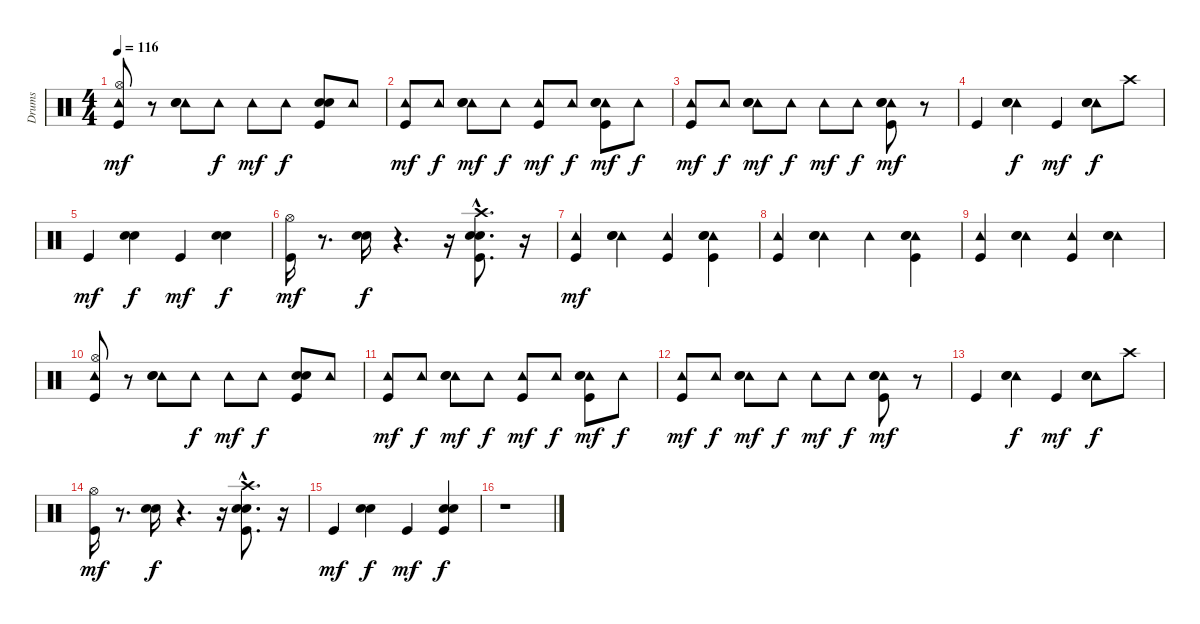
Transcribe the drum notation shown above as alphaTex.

\track ("Drums" "Drums") {instrument percussion}
\staff {score}
\articulation defaults
\ts (4 4)
\tempo 116
\clef neutral
\ks c
("Tambourine (hit)" "Hi-Hat (open)" "Kick (hit)").8{dy mf} r.8 ("Tambourine (hit)" "Electric Snare (hit)" "Snare (hit) 2").8 "Tambourine (hit)".8{dy f} "Tambourine (hit)".8{dy mf} "Tambourine (hit)".8{dy f} ("Electric Snare (hit)" "Snare (hit) 2" "Kick (hit)").8 "Tambourine (hit)".8 |
("Tambourine (hit)" "Kick (hit)").8{dy mf} "Tambourine (hit)".8{dy f} ("Tambourine (hit)" "Electric Snare (hit)" "Snare (hit) 2").8{dy mf} "Tambourine (hit)".8{dy f} ("Tambourine (hit)" "Kick (hit)").8{dy mf} "Tambourine (hit)".8{dy f} ("Tambourine (hit)" "Electric Snare (hit)" "Snare (hit) 2" "Kick (hit)").8{dy mf} "Tambourine (hit)".8{dy f} |
("Tambourine (hit)" "Kick (hit)").8{dy mf} "Tambourine (hit)".8{dy f} ("Tambourine (hit)" "Electric Snare (hit)" "Snare (hit) 2").8{dy mf} "Tambourine (hit)".8{dy f} "Tambourine (hit)".8{dy mf} "Tambourine (hit)".8{dy f} ("Tambourine (hit)" "Electric Snare (hit)" "Snare (hit) 2" "Kick (hit)").8{dy mf} r.8 |
"Kick (hit)".4 ("Tambourine (hit)" "Electric Snare (hit)" "Snare (hit) 2").4{dy f} "Kick (hit)".4{dy mf} ("Tambourine (hit)" "Electric Snare (hit)" "Snare (hit) 2").8{dy f} "Crash high (hit)".8 |
"Kick (hit)".4{dy mf} ("Electric Snare (hit)" "Snare (hit) 2").4{dy f} "Kick (hit)".4{dy mf} ("Electric Snare (hit)" "Snare (hit) 2").4{dy f} |
("Hi-Hat (open)" "Kick (hit)").16{dy mf} r.8{d} ("Electric Snare (hit)" "Snare (hit) 2").16{dy f} r.4{d} r.16 ("Crash high (hit)"{hac} "Electric Snare (hit)" "Snare (hit) 2" "Kick (hit)").8{d} r.16 |
("Tambourine (hit)" "Kick (hit)").4{dy mf} ("Tambourine (hit)" "Electric Snare (hit)" "Snare (hit) 2").4 ("Tambourine (hit)" "Kick (hit)").4 ("Tambourine (hit)" "Electric Snare (hit)" "Snare (hit) 2" "Kick (hit)").4 |
("Tambourine (hit)" "Kick (hit)").4 ("Tambourine (hit)" "Electric Snare (hit)" "Snare (hit) 2").4 "Tambourine (hit)".4 ("Tambourine (hit)" "Electric Snare (hit)" "Snare (hit) 2" "Kick (hit)").4 |
("Tambourine (hit)" "Kick (hit)").4 ("Tambourine (hit)" "Electric Snare (hit)" "Snare (hit) 2").4 ("Tambourine (hit)" "Kick (hit)").4 ("Tambourine (hit)" "Electric Snare (hit)" "Snare (hit) 2").4 |
("Tambourine (hit)" "Hi-Hat (open)" "Kick (hit)").8 r.8 ("Tambourine (hit)" "Electric Snare (hit)" "Snare (hit) 2").8 "Tambourine (hit)".8{dy f} "Tambourine (hit)".8{dy mf} "Tambourine (hit)".8{dy f} ("Electric Snare (hit)" "Snare (hit) 2" "Kick (hit)").8 "Tambourine (hit)".8 |
("Tambourine (hit)" "Kick (hit)").8{dy mf} "Tambourine (hit)".8{dy f} ("Tambourine (hit)" "Electric Snare (hit)" "Snare (hit) 2").8{dy mf} "Tambourine (hit)".8{dy f} ("Tambourine (hit)" "Kick (hit)").8{dy mf} "Tambourine (hit)".8{dy f} ("Tambourine (hit)" "Electric Snare (hit)" "Snare (hit) 2" "Kick (hit)").8{dy mf} "Tambourine (hit)".8{dy f} |
("Tambourine (hit)" "Kick (hit)").8{dy mf} "Tambourine (hit)".8{dy f} ("Tambourine (hit)" "Electric Snare (hit)" "Snare (hit) 2").8{dy mf} "Tambourine (hit)".8{dy f} "Tambourine (hit)".8{dy mf} "Tambourine (hit)".8{dy f} ("Tambourine (hit)" "Electric Snare (hit)" "Snare (hit) 2" "Kick (hit)").8{dy mf} r.8 |
"Kick (hit)".4 ("Tambourine (hit)" "Electric Snare (hit)" "Snare (hit) 2").4{dy f} "Kick (hit)".4{dy mf} ("Tambourine (hit)" "Electric Snare (hit)" "Snare (hit) 2").8{dy f} "Crash high (hit)".8 |
("Hi-Hat (open)" "Kick (hit)").16{dy mf} r.8{d} ("Electric Snare (hit)" "Snare (hit) 2").16{dy f} r.4{d} r.16 ("Crash high (hit)"{hac} "Electric Snare (hit)" "Snare (hit) 2" "Kick (hit)").8{d} r.16 |
"Kick (hit)".4{dy mf} ("Electric Snare (hit)" "Snare (hit) 2").4{dy f} "Kick (hit)".4{dy mf} ("Electric Snare (hit)" "Snare (hit) 2" "Kick (hit)").4{dy f} |
r.1
